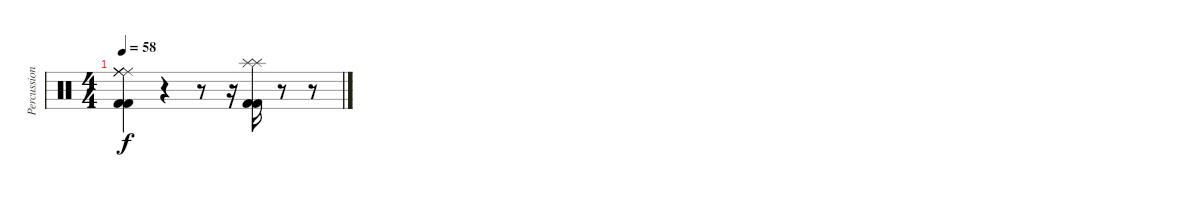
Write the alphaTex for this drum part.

\track ("Percussion" "Percussion") {instrument percussion}
\staff {score}
\articulation defaults
\ts (4 4)
\tempo 58
\clef neutral
\ks c
("Ride (middle)" "Ride (middle)" "Ride (middle)" "Ride (middle)" "Kick (hit) 2" "Kick (hit) 2").4{dy f} r.4 r.8 r.16 ("Splash (hit)" "Splash (hit)" "Kick (hit) 2" "Kick (hit) 2").16 r.8 r.8
